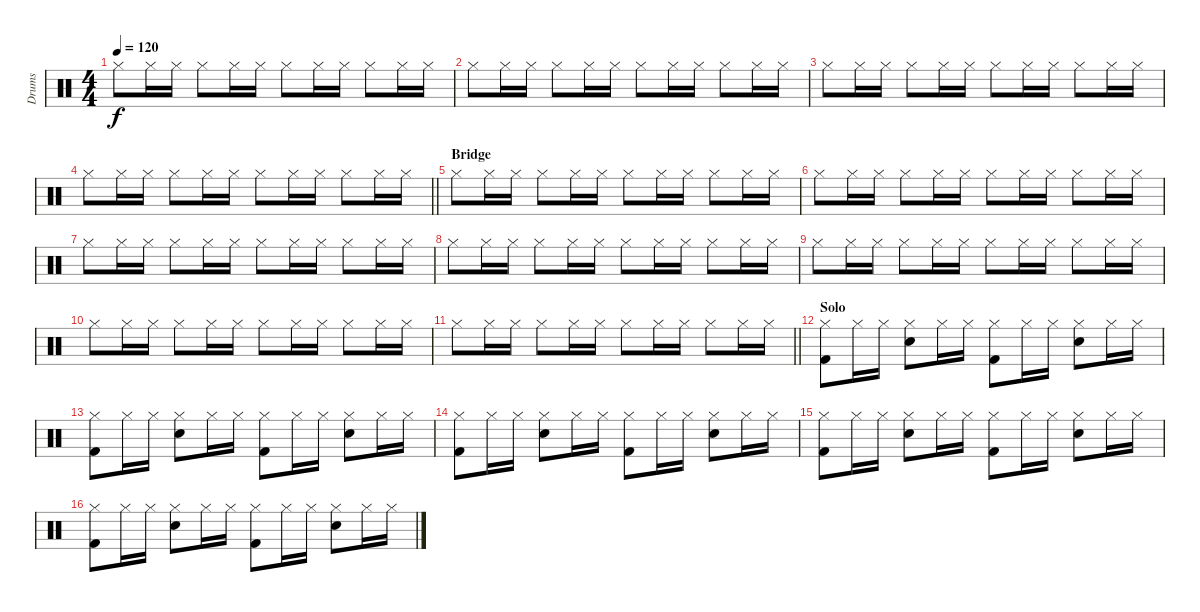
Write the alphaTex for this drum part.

\track ("Drums" "Drums") {instrument percussion}
\staff {score}
\articulation defaults
\ts (4 4)
\tempo 120
\clef neutral
\ks c "Hi-Hat (closed)".8{dy f} "Hi-Hat (closed)".16 "Hi-Hat (closed)".16 "Hi-Hat (closed)".8 "Hi-Hat (closed)".16 "Hi-Hat (closed)".16 "Hi-Hat (closed)".8 "Hi-Hat (closed)".16 "Hi-Hat (closed)".16 "Hi-Hat (closed)".8 "Hi-Hat (closed)".16 "Hi-Hat (closed)".16
|
"Hi-Hat (closed)".8 "Hi-Hat (closed)".16 "Hi-Hat (closed)".16 "Hi-Hat (closed)".8 "Hi-Hat (closed)".16 "Hi-Hat (closed)".16 "Hi-Hat (closed)".8 "Hi-Hat (closed)".16 "Hi-Hat (closed)".16 "Hi-Hat (closed)".8 "Hi-Hat (closed)".16 "Hi-Hat (closed)".16 |
"Hi-Hat (closed)".8 "Hi-Hat (closed)".16 "Hi-Hat (closed)".16 "Hi-Hat (closed)".8 "Hi-Hat (closed)".16 "Hi-Hat (closed)".16 "Hi-Hat (closed)".8 "Hi-Hat (closed)".16 "Hi-Hat (closed)".16 "Hi-Hat (closed)".8 "Hi-Hat (closed)".16 "Hi-Hat (closed)".16 |
\barLineRight lightlight "Hi-Hat (closed)".8 "Hi-Hat (closed)".16 "Hi-Hat (closed)".16 "Hi-Hat (closed)".8 "Hi-Hat (closed)".16 "Hi-Hat (closed)".16 "Hi-Hat (closed)".8 "Hi-Hat (closed)".16 "Hi-Hat (closed)".16 "Hi-Hat (closed)".8 "Hi-Hat (closed)".16 "Hi-Hat (closed)".16
|
\section ("" "Bridge")
"Hi-Hat (closed)".8 "Hi-Hat (closed)".16 "Hi-Hat (closed)".16 "Hi-Hat (closed)".8 "Hi-Hat (closed)".16 "Hi-Hat (closed)".16 "Hi-Hat (closed)".8 "Hi-Hat (closed)".16 "Hi-Hat (closed)".16 "Hi-Hat (closed)".8 "Hi-Hat (closed)".16 "Hi-Hat (closed)".16 |
"Hi-Hat (closed)".8 "Hi-Hat (closed)".16 "Hi-Hat (closed)".16 "Hi-Hat (closed)".8 "Hi-Hat (closed)".16 "Hi-Hat (closed)".16 "Hi-Hat (closed)".8 "Hi-Hat (closed)".16 "Hi-Hat (closed)".16 "Hi-Hat (closed)".8 "Hi-Hat (closed)".16 "Hi-Hat (closed)".16 |
"Hi-Hat (closed)".8 "Hi-Hat (closed)".16 "Hi-Hat (closed)".16 "Hi-Hat (closed)".8 "Hi-Hat (closed)".16 "Hi-Hat (closed)".16 "Hi-Hat (closed)".8 "Hi-Hat (closed)".16 "Hi-Hat (closed)".16 "Hi-Hat (closed)".8 "Hi-Hat (closed)".16 "Hi-Hat (closed)".16 |
"Hi-Hat (closed)".8 "Hi-Hat (closed)".16 "Hi-Hat (closed)".16 "Hi-Hat (closed)".8 "Hi-Hat (closed)".16 "Hi-Hat (closed)".16 "Hi-Hat (closed)".8 "Hi-Hat (closed)".16 "Hi-Hat (closed)".16 "Hi-Hat (closed)".8 "Hi-Hat (closed)".16 "Hi-Hat (closed)".16 |
"Hi-Hat (closed)".8 "Hi-Hat (closed)".16 "Hi-Hat (closed)".16 "Hi-Hat (closed)".8 "Hi-Hat (closed)".16 "Hi-Hat (closed)".16 "Hi-Hat (closed)".8 "Hi-Hat (closed)".16 "Hi-Hat (closed)".16 "Hi-Hat (closed)".8 "Hi-Hat (closed)".16 "Hi-Hat (closed)".16 |
"Hi-Hat (closed)".8 "Hi-Hat (closed)".16 "Hi-Hat (closed)".16 "Hi-Hat (closed)".8 "Hi-Hat (closed)".16 "Hi-Hat (closed)".16 "Hi-Hat (closed)".8 "Hi-Hat (closed)".16 "Hi-Hat (closed)".16 "Hi-Hat (closed)".8 "Hi-Hat (closed)".16 "Hi-Hat (closed)".16 |
\barLineRight lightlight "Hi-Hat (closed)".8 "Hi-Hat (closed)".16 "Hi-Hat (closed)".16 "Hi-Hat (closed)".8 "Hi-Hat (closed)".16 "Hi-Hat (closed)".16 "Hi-Hat (closed)".8 "Hi-Hat (closed)".16 "Hi-Hat (closed)".16 "Hi-Hat (closed)".8 "Hi-Hat (closed)".16 "Hi-Hat (closed)".16
|
\section ("" "Solo")
("Kick (hit) 2" "Hi-Hat (closed)").8 "Hi-Hat (closed)".16 "Hi-Hat (closed)".16 ("Electric Snare (hit)" "Hi-Hat (closed)").8 "Hi-Hat (closed)".16 "Hi-Hat (closed)".16 ("Kick (hit) 2" "Hi-Hat (closed)").8 "Hi-Hat (closed)".16 "Hi-Hat (closed)".16 ("Electric Snare (hit)" "Hi-Hat (closed)").8 "Hi-Hat (closed)".16 "Hi-Hat (closed)".16 |
("Kick (hit) 2" "Hi-Hat (closed)").8 "Hi-Hat (closed)".16 "Hi-Hat (closed)".16 ("Electric Snare (hit)" "Hi-Hat (closed)").8 "Hi-Hat (closed)".16 "Hi-Hat (closed)".16 ("Kick (hit) 2" "Hi-Hat (closed)").8 "Hi-Hat (closed)".16 "Hi-Hat (closed)".16 ("Electric Snare (hit)" "Hi-Hat (closed)").8 "Hi-Hat (closed)".16 "Hi-Hat (closed)".16 |
("Kick (hit) 2" "Hi-Hat (closed)").8 "Hi-Hat (closed)".16 "Hi-Hat (closed)".16 ("Electric Snare (hit)" "Hi-Hat (closed)").8 "Hi-Hat (closed)".16 "Hi-Hat (closed)".16 ("Kick (hit) 2" "Hi-Hat (closed)").8 "Hi-Hat (closed)".16 "Hi-Hat (closed)".16 ("Electric Snare (hit)" "Hi-Hat (closed)").8 "Hi-Hat (closed)".16 "Hi-Hat (closed)".16 |
("Kick (hit) 2" "Hi-Hat (closed)").8 "Hi-Hat (closed)".16 "Hi-Hat (closed)".16 ("Electric Snare (hit)" "Hi-Hat (closed)").8 "Hi-Hat (closed)".16 "Hi-Hat (closed)".16 ("Kick (hit) 2" "Hi-Hat (closed)").8 "Hi-Hat (closed)".16 "Hi-Hat (closed)".16 ("Electric Snare (hit)" "Hi-Hat (closed)").8 "Hi-Hat (closed)".16 "Hi-Hat (closed)".16 |
("Kick (hit) 2" "Hi-Hat (closed)").8 "Hi-Hat (closed)".16 "Hi-Hat (closed)".16 ("Electric Snare (hit)" "Hi-Hat (closed)").8 "Hi-Hat (closed)".16 "Hi-Hat (closed)".16 ("Kick (hit) 2" "Hi-Hat (closed)").8 "Hi-Hat (closed)".16 "Hi-Hat (closed)".16 ("Electric Snare (hit)" "Hi-Hat (closed)").8 "Hi-Hat (closed)".16 "Hi-Hat (closed)".16
